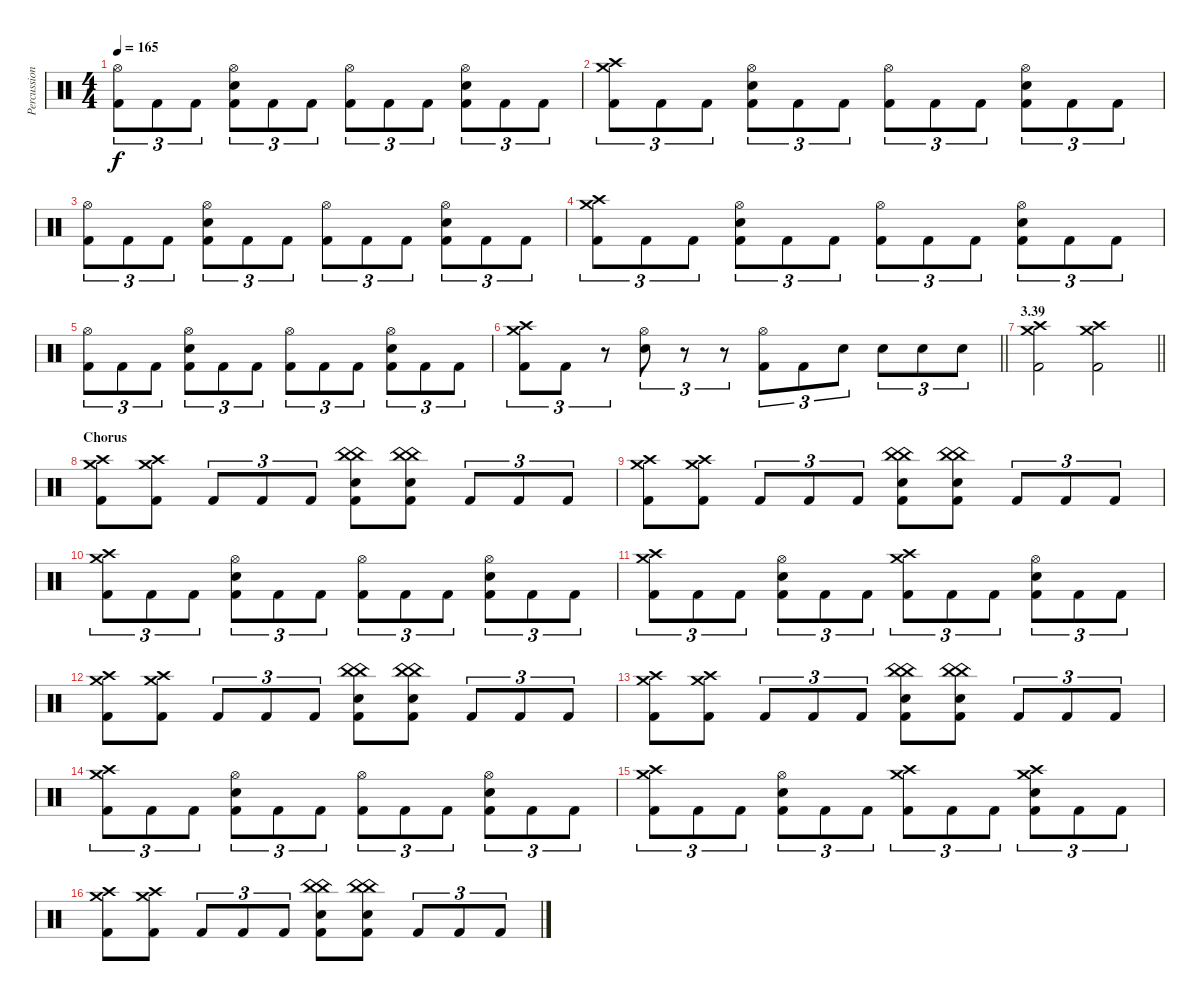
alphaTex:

\track ("Percussioni" "Percussion") {instrument percussion}
\staff {score}
\articulation defaults
\ts (4 4)
\tempo 165
\clef neutral
\ks c
("Hi-Hat (open)" "Kick (hit) 2").8{tu (3 2) dy f} "Kick (hit) 2".8{tu (3 2)} "Kick (hit) 2".8{tu (3 2)} ("Hi-Hat (open)" "Electric Snare (hit)" "Kick (hit) 2").8{tu (3 2)} "Kick (hit) 2".8{tu (3 2)} "Kick (hit) 2".8{tu (3 2)} ("Hi-Hat (open)" "Kick (hit) 2").8{tu (3 2)} "Kick (hit) 2".8{tu (3 2)} "Kick (hit) 2".8{tu (3 2)} ("Hi-Hat (open)" "Electric Snare (hit)" "Kick (hit) 2").8{tu (3 2)} "Kick (hit) 2".8{tu (3 2)} "Kick (hit) 2".8{tu (3 2)} |
("Crash high (hit)" "Crash medium (hit)" "Kick (hit) 2").8{tu (3 2)} "Kick (hit) 2".8{tu (3 2)} "Kick (hit) 2".8{tu (3 2)} ("Hi-Hat (open)" "Electric Snare (hit)" "Kick (hit) 2").8{tu (3 2)} "Kick (hit) 2".8{tu (3 2)} "Kick (hit) 2".8{tu (3 2)} ("Hi-Hat (open)" "Kick (hit) 2").8{tu (3 2)} "Kick (hit) 2".8{tu (3 2)} "Kick (hit) 2".8{tu (3 2)} ("Hi-Hat (open)" "Electric Snare (hit)" "Kick (hit) 2").8{tu (3 2)} "Kick (hit) 2".8{tu (3 2)} "Kick (hit) 2".8{tu (3 2)} |
("Hi-Hat (open)" "Kick (hit) 2").8{tu (3 2)} "Kick (hit) 2".8{tu (3 2)} "Kick (hit) 2".8{tu (3 2)} ("Hi-Hat (open)" "Electric Snare (hit)" "Kick (hit) 2").8{tu (3 2)} "Kick (hit) 2".8{tu (3 2)} "Kick (hit) 2".8{tu (3 2)} ("Hi-Hat (open)" "Kick (hit) 2").8{tu (3 2)} "Kick (hit) 2".8{tu (3 2)} "Kick (hit) 2".8{tu (3 2)} ("Hi-Hat (open)" "Electric Snare (hit)" "Kick (hit) 2").8{tu (3 2)} "Kick (hit) 2".8{tu (3 2)} "Kick (hit) 2".8{tu (3 2)} |
("Crash high (hit)" "Crash medium (hit)" "Kick (hit) 2").8{tu (3 2)} "Kick (hit) 2".8{tu (3 2)} "Kick (hit) 2".8{tu (3 2)} ("Hi-Hat (open)" "Electric Snare (hit)" "Kick (hit) 2").8{tu (3 2)} "Kick (hit) 2".8{tu (3 2)} "Kick (hit) 2".8{tu (3 2)} ("Hi-Hat (open)" "Kick (hit) 2").8{tu (3 2)} "Kick (hit) 2".8{tu (3 2)} "Kick (hit) 2".8{tu (3 2)} ("Hi-Hat (open)" "Electric Snare (hit)" "Kick (hit) 2").8{tu (3 2)} "Kick (hit) 2".8{tu (3 2)} "Kick (hit) 2".8{tu (3 2)} |
("Hi-Hat (open)" "Kick (hit) 2").8{tu (3 2)} "Kick (hit) 2".8{tu (3 2)} "Kick (hit) 2".8{tu (3 2)} ("Hi-Hat (open)" "Electric Snare (hit)" "Kick (hit) 2").8{tu (3 2)} "Kick (hit) 2".8{tu (3 2)} "Kick (hit) 2".8{tu (3 2)} ("Hi-Hat (open)" "Kick (hit) 2").8{tu (3 2)} "Kick (hit) 2".8{tu (3 2)} "Kick (hit) 2".8{tu (3 2)} ("Hi-Hat (open)" "Electric Snare (hit)" "Kick (hit) 2").8{tu (3 2)} "Kick (hit) 2".8{tu (3 2)} "Kick (hit) 2".8{tu (3 2)} |
\barLineRight lightlight
("Crash high (hit)" "Crash medium (hit)" "Kick (hit) 2").8{tu (3 2)} "Kick (hit) 2".8{tu (3 2)} r.8{tu (3 2)} ("Hi-Hat (open)" "Electric Snare (hit)").8{tu (3 2)} r.8{tu (3 2)} r.8{tu (3 2)} ("Hi-Hat (open)" "Kick (hit) 2").8{tu (3 2)} "Kick (hit) 2".8{tu (3 2)} "Electric Snare (hit)".8{tu (3 2)} "Electric Snare (hit)".8{tu (3 2)} "Electric Snare (hit)".8{tu (3 2)} "Electric Snare (hit)".8{tu (3 2)} |
\section ("" "3.39")
\barLineRight lightlight
("Crash high (hit)" "Crash medium (hit)" "Kick (hit) 2").2 ("Crash high (hit)" "Crash medium (hit)" "Kick (hit) 2").2 |
\section ("" "Chorus")
("Crash high (hit)" "Crash medium (hit)" "Kick (hit) 2").8 ("Crash high (hit)" "Crash medium (hit)" "Kick (hit) 2").8 "Kick (hit) 2".8{tu (3 2)} "Kick (hit) 2".8{tu (3 2)} "Kick (hit) 2".8{tu (3 2)} ("China (hit)" "China (hit)" "Electric Snare (hit)" "Kick (hit) 2").8 ("China (hit)" "China (hit)" "Electric Snare (hit)" "Kick (hit) 2").8 "Kick (hit) 2".8{tu (3 2)} "Kick (hit) 2".8{tu (3 2)} "Kick (hit) 2".8{tu (3 2)} |
("Crash high (hit)" "Crash medium (hit)" "Kick (hit) 2").8 ("Crash high (hit)" "Crash medium (hit)" "Kick (hit) 2").8 "Kick (hit) 2".8{tu (3 2)} "Kick (hit) 2".8{tu (3 2)} "Kick (hit) 2".8{tu (3 2)} ("China (hit)" "China (hit)" "Electric Snare (hit)" "Kick (hit) 2").8 ("China (hit)" "China (hit)" "Electric Snare (hit)" "Kick (hit) 2").8 "Kick (hit) 2".8{tu (3 2)} "Kick (hit) 2".8{tu (3 2)} "Kick (hit) 2".8{tu (3 2)} |
("Crash high (hit)" "Crash medium (hit)" "Kick (hit) 2").8{tu (3 2)} "Kick (hit) 2".8{tu (3 2)} "Kick (hit) 2".8{tu (3 2)} ("Hi-Hat (open)" "Electric Snare (hit)" "Kick (hit) 2").8{tu (3 2)} "Kick (hit) 2".8{tu (3 2)} "Kick (hit) 2".8{tu (3 2)} ("Hi-Hat (open)" "Kick (hit) 2").8{tu (3 2)} "Kick (hit) 2".8{tu (3 2)} "Kick (hit) 2".8{tu (3 2)} ("Hi-Hat (open)" "Electric Snare (hit)" "Kick (hit) 2").8{tu (3 2)} "Kick (hit) 2".8{tu (3 2)} "Kick (hit) 2".8{tu (3 2)} |
("Crash high (hit)" "Crash medium (hit)" "Kick (hit) 2").8{tu (3 2)} "Kick (hit) 2".8{tu (3 2)} "Kick (hit) 2".8{tu (3 2)} ("Hi-Hat (open)" "Electric Snare (hit)" "Kick (hit) 2").8{tu (3 2)} "Kick (hit) 2".8{tu (3 2)} "Kick (hit) 2".8{tu (3 2)} ("Crash high (hit)" "Crash medium (hit)" "Kick (hit) 2").8{tu (3 2)} "Kick (hit) 2".8{tu (3 2)} "Kick (hit) 2".8{tu (3 2)} ("Hi-Hat (open)" "Electric Snare (hit)" "Kick (hit) 2").8{tu (3 2)} "Kick (hit) 2".8{tu (3 2)} "Kick (hit) 2".8{tu (3 2)} |
("Crash high (hit)" "Crash medium (hit)" "Kick (hit) 2").8 ("Crash high (hit)" "Crash medium (hit)" "Kick (hit) 2").8 "Kick (hit) 2".8{tu (3 2)} "Kick (hit) 2".8{tu (3 2)} "Kick (hit) 2".8{tu (3 2)} ("China (hit)" "China (hit)" "Electric Snare (hit)" "Kick (hit) 2").8 ("China (hit)" "China (hit)" "Electric Snare (hit)" "Kick (hit) 2").8 "Kick (hit) 2".8{tu (3 2)} "Kick (hit) 2".8{tu (3 2)} "Kick (hit) 2".8{tu (3 2)} |
("Crash high (hit)" "Crash medium (hit)" "Kick (hit) 2").8 ("Crash high (hit)" "Crash medium (hit)" "Kick (hit) 2").8 "Kick (hit) 2".8{tu (3 2)} "Kick (hit) 2".8{tu (3 2)} "Kick (hit) 2".8{tu (3 2)} ("China (hit)" "China (hit)" "Electric Snare (hit)" "Kick (hit) 2").8 ("China (hit)" "China (hit)" "Electric Snare (hit)" "Kick (hit) 2").8 "Kick (hit) 2".8{tu (3 2)} "Kick (hit) 2".8{tu (3 2)} "Kick (hit) 2".8{tu (3 2)} |
("Crash high (hit)" "Crash medium (hit)" "Kick (hit) 2").8{tu (3 2)} "Kick (hit) 2".8{tu (3 2)} "Kick (hit) 2".8{tu (3 2)} ("Hi-Hat (open)" "Electric Snare (hit)" "Kick (hit) 2").8{tu (3 2)} "Kick (hit) 2".8{tu (3 2)} "Kick (hit) 2".8{tu (3 2)} ("Hi-Hat (open)" "Kick (hit) 2").8{tu (3 2)} "Kick (hit) 2".8{tu (3 2)} "Kick (hit) 2".8{tu (3 2)} ("Hi-Hat (open)" "Electric Snare (hit)" "Kick (hit) 2").8{tu (3 2)} "Kick (hit) 2".8{tu (3 2)} "Kick (hit) 2".8{tu (3 2)} |
("Crash high (hit)" "Crash medium (hit)" "Kick (hit) 2").8{tu (3 2)} "Kick (hit) 2".8{tu (3 2)} "Kick (hit) 2".8{tu (3 2)} ("Hi-Hat (open)" "Electric Snare (hit)" "Kick (hit) 2").8{tu (3 2)} "Kick (hit) 2".8{tu (3 2)} "Kick (hit) 2".8{tu (3 2)} ("Crash high (hit)" "Crash medium (hit)" "Kick (hit) 2").8{tu (3 2)} "Kick (hit) 2".8{tu (3 2)} "Kick (hit) 2".8{tu (3 2)} ("Crash high (hit)" "Crash medium (hit)" "Electric Snare (hit)" "Kick (hit) 2").8{tu (3 2)} "Kick (hit) 2".8{tu (3 2)} "Kick (hit) 2".8{tu (3 2)} |
("Crash high (hit)" "Crash medium (hit)" "Kick (hit) 2").8 ("Crash high (hit)" "Crash medium (hit)" "Kick (hit) 2").8 "Kick (hit) 2".8{tu (3 2)} "Kick (hit) 2".8{tu (3 2)} "Kick (hit) 2".8{tu (3 2)} ("China (hit)" "China (hit)" "Electric Snare (hit)" "Kick (hit) 2").8 ("China (hit)" "China (hit)" "Electric Snare (hit)" "Kick (hit) 2").8 "Kick (hit) 2".8{tu (3 2)} "Kick (hit) 2".8{tu (3 2)} "Kick (hit) 2".8{tu (3 2)}
